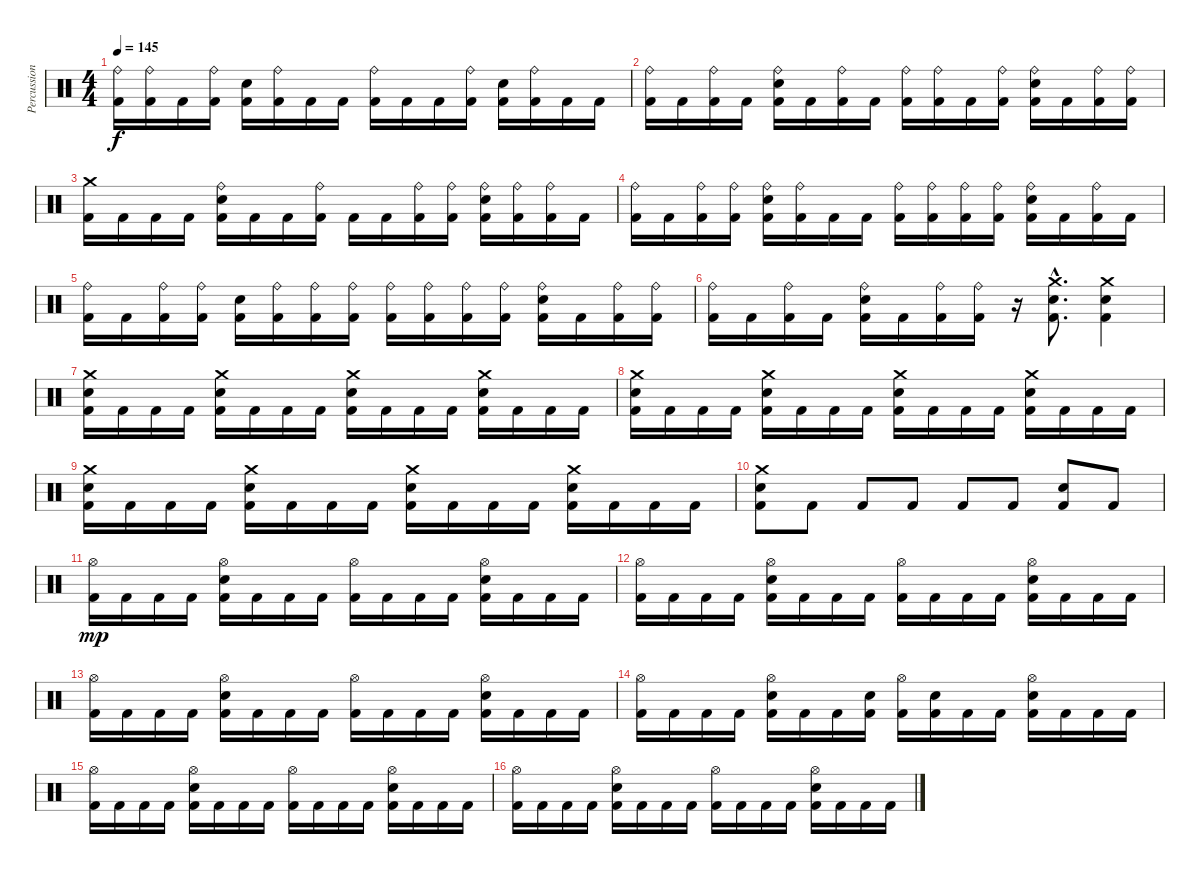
\track ("Percussion" "Percussion") {instrument percussion}
\staff {score}
\articulation defaults
\ts (4 4)
\tempo 145
\clef neutral
\ks c
("Ride (bell)" "Kick (hit) 2").16{dy f} ("Ride (bell)" "Kick (hit) 2").16 "Kick (hit) 2".16 ("Ride (bell)" "Kick (hit) 2").16 ("Electric Snare (hit)" "Kick (hit) 2").16 ("Ride (bell)" "Kick (hit) 2").16 "Kick (hit) 2".16 "Kick (hit) 2".16 ("Ride (bell)" "Kick (hit) 2").16 "Kick (hit) 2".16 "Kick (hit) 2".16 ("Ride (bell)" "Kick (hit) 2").16 ("Electric Snare (hit)" "Kick (hit) 2").16 ("Ride (bell)" "Kick (hit) 2").16 "Kick (hit) 2".16 "Kick (hit) 2".16 |
("Ride (bell)" "Kick (hit) 2").16 "Kick (hit) 2".16 ("Ride (bell)" "Kick (hit) 2").16 "Kick (hit) 2".16 ("Ride (bell)" "Electric Snare (hit)" "Kick (hit) 2").16 "Kick (hit) 2".16 ("Ride (bell)" "Kick (hit) 2").16 "Kick (hit) 2".16 ("Ride (bell)" "Kick (hit) 2").16 ("Ride (bell)" "Kick (hit) 2").16 "Kick (hit) 2".16 ("Ride (bell)" "Kick (hit) 2").16 ("Ride (bell)" "Electric Snare (hit)" "Kick (hit) 2").16 "Kick (hit) 2".16 ("Ride (bell)" "Kick (hit) 2").16 ("Ride (bell)" "Kick (hit) 2").16 |
("Crash medium (hit)" "Kick (hit) 2").16 "Kick (hit) 2".16 "Kick (hit) 2".16 "Kick (hit) 2".16 ("Ride (bell)" "Electric Snare (hit)" "Kick (hit) 2").16 "Kick (hit) 2".16 "Kick (hit) 2".16 ("Ride (bell)" "Kick (hit) 2").16 "Kick (hit) 2".16 "Kick (hit) 2".16 ("Ride (bell)" "Kick (hit) 2").16 ("Ride (bell)" "Kick (hit) 2").16 ("Ride (bell)" "Electric Snare (hit)" "Kick (hit) 2").16 ("Ride (bell)" "Kick (hit) 2").16 ("Ride (bell)" "Kick (hit) 2").16 "Kick (hit) 2".16 |
("Ride (bell)" "Kick (hit) 2").16 "Kick (hit) 2".16 ("Ride (bell)" "Kick (hit) 2").16 ("Ride (bell)" "Kick (hit) 2").16 ("Ride (bell)" "Electric Snare (hit)" "Kick (hit) 2").16 ("Ride (bell)" "Kick (hit) 2").16 "Kick (hit) 2".16 "Kick (hit) 2".16 ("Ride (bell)" "Kick (hit) 2").16 ("Ride (bell)" "Kick (hit) 2").16 ("Ride (bell)" "Kick (hit) 2").16 ("Ride (bell)" "Kick (hit) 2").16 ("Ride (bell)" "Electric Snare (hit)" "Kick (hit) 2").16 "Kick (hit) 2".16 ("Ride (bell)" "Kick (hit) 2").16 "Kick (hit) 2".16 |
("Ride (bell)" "Kick (hit) 2").16 "Kick (hit) 2".16 ("Ride (bell)" "Kick (hit) 2").16 ("Ride (bell)" "Kick (hit) 2").16 ("Electric Snare (hit)" "Kick (hit) 2").16 ("Ride (bell)" "Kick (hit) 2").16 ("Ride (bell)" "Kick (hit) 2").16 ("Ride (bell)" "Kick (hit) 2").16 ("Ride (bell)" "Kick (hit) 2").16 ("Ride (bell)" "Kick (hit) 2").16 ("Ride (bell)" "Kick (hit) 2").16 ("Ride (bell)" "Kick (hit) 2").16 ("Ride (bell)" "Electric Snare (hit)" "Kick (hit) 2").16 "Kick (hit) 2".16 ("Ride (bell)" "Kick (hit) 2").16 ("Ride (bell)" "Kick (hit) 2").16 |
("Ride (bell)" "Kick (hit) 2").16 "Kick (hit) 2".16 ("Ride (bell)" "Kick (hit) 2").16 "Kick (hit) 2".16 ("Ride (bell)" "Electric Snare (hit)" "Kick (hit) 2").16 "Kick (hit) 2".16 ("Ride (bell)" "Kick (hit) 2").16 ("Ride (bell)" "Kick (hit) 2").16 r.16 ("Crash medium (hit)"{hac} "Electric Snare (hit)"{hac} "Kick (hit) 2"{hac}).8{d} ("Crash medium (hit)" "Electric Snare (hit)" "Kick (hit) 2").4 |
("Crash medium (hit)" "Electric Snare (hit)" "Kick (hit) 2").16 "Kick (hit) 2".16 "Kick (hit) 2".16 "Kick (hit) 2".16 ("Crash medium (hit)" "Electric Snare (hit)" "Kick (hit) 2").16 "Kick (hit) 2".16 "Kick (hit) 2".16 "Kick (hit) 2".16 ("Crash medium (hit)" "Electric Snare (hit)" "Kick (hit) 2").16 "Kick (hit) 2".16 "Kick (hit) 2".16 "Kick (hit) 2".16 ("Crash medium (hit)" "Electric Snare (hit)" "Kick (hit) 2").16 "Kick (hit) 2".16 "Kick (hit) 2".16 "Kick (hit) 2".16 |
("Crash medium (hit)" "Electric Snare (hit)" "Kick (hit) 2").16 "Kick (hit) 2".16 "Kick (hit) 2".16 "Kick (hit) 2".16 ("Crash medium (hit)" "Electric Snare (hit)" "Kick (hit) 2").16 "Kick (hit) 2".16 "Kick (hit) 2".16 "Kick (hit) 2".16 ("Crash medium (hit)" "Electric Snare (hit)" "Kick (hit) 2").16 "Kick (hit) 2".16 "Kick (hit) 2".16 "Kick (hit) 2".16 ("Crash medium (hit)" "Electric Snare (hit)" "Kick (hit) 2").16 "Kick (hit) 2".16 "Kick (hit) 2".16 "Kick (hit) 2".16 |
("Crash medium (hit)" "Electric Snare (hit)" "Kick (hit) 2").16 "Kick (hit) 2".16 "Kick (hit) 2".16 "Kick (hit) 2".16 ("Crash medium (hit)" "Electric Snare (hit)" "Kick (hit) 2").16 "Kick (hit) 2".16 "Kick (hit) 2".16 "Kick (hit) 2".16 ("Crash medium (hit)" "Electric Snare (hit)" "Kick (hit) 2").16 "Kick (hit) 2".16 "Kick (hit) 2".16 "Kick (hit) 2".16 ("Crash medium (hit)" "Electric Snare (hit)" "Kick (hit) 2").16 "Kick (hit) 2".16 "Kick (hit) 2".16 "Kick (hit) 2".16 |
("Crash medium (hit)" "Electric Snare (hit)" "Kick (hit) 2").8 "Kick (hit) 2".8 "Kick (hit) 2".8 "Kick (hit) 2".8 "Kick (hit) 2".8 "Kick (hit) 2".8 ("Electric Snare (hit)" "Kick (hit) 2").8 "Kick (hit) 2".8 |
("Hi-Hat (open)" "Kick (hit) 2").16{dy mp} "Kick (hit) 2".16 "Kick (hit) 2".16 "Kick (hit) 2".16 ("Hi-Hat (open)" "Electric Snare (hit)" "Kick (hit) 2").16 "Kick (hit) 2".16 "Kick (hit) 2".16 "Kick (hit) 2".16 ("Hi-Hat (open)" "Kick (hit) 2").16 "Kick (hit) 2".16 "Kick (hit) 2".16 "Kick (hit) 2".16 ("Hi-Hat (open)" "Electric Snare (hit)" "Kick (hit) 2").16 "Kick (hit) 2".16 "Kick (hit) 2".16 "Kick (hit) 2".16 |
("Hi-Hat (open)" "Kick (hit) 2").16 "Kick (hit) 2".16 "Kick (hit) 2".16 "Kick (hit) 2".16 ("Hi-Hat (open)" "Electric Snare (hit)" "Kick (hit) 2").16 "Kick (hit) 2".16 "Kick (hit) 2".16 "Kick (hit) 2".16 ("Hi-Hat (open)" "Kick (hit) 2").16 "Kick (hit) 2".16 "Kick (hit) 2".16 "Kick (hit) 2".16 ("Hi-Hat (open)" "Electric Snare (hit)" "Kick (hit) 2").16 "Kick (hit) 2".16 "Kick (hit) 2".16 "Kick (hit) 2".16 |
("Hi-Hat (open)" "Kick (hit) 2").16 "Kick (hit) 2".16 "Kick (hit) 2".16 "Kick (hit) 2".16 ("Hi-Hat (open)" "Electric Snare (hit)" "Kick (hit) 2").16 "Kick (hit) 2".16 "Kick (hit) 2".16 "Kick (hit) 2".16 ("Hi-Hat (open)" "Kick (hit) 2").16 "Kick (hit) 2".16 "Kick (hit) 2".16 "Kick (hit) 2".16 ("Hi-Hat (open)" "Electric Snare (hit)" "Kick (hit) 2").16 "Kick (hit) 2".16 "Kick (hit) 2".16 "Kick (hit) 2".16 |
("Hi-Hat (open)" "Kick (hit) 2").16 "Kick (hit) 2".16 "Kick (hit) 2".16 "Kick (hit) 2".16 ("Hi-Hat (open)" "Electric Snare (hit)" "Kick (hit) 2").16 "Kick (hit) 2".16 "Kick (hit) 2".16 ("Electric Snare (hit)" "Kick (hit) 2").16 ("Hi-Hat (open)" "Kick (hit) 2").16 ("Electric Snare (hit)" "Kick (hit) 2").16 "Kick (hit) 2".16 "Kick (hit) 2".16 ("Hi-Hat (open)" "Electric Snare (hit)" "Kick (hit) 2").16 "Kick (hit) 2".16 "Kick (hit) 2".16 "Kick (hit) 2".16 |
("Hi-Hat (open)" "Kick (hit) 2").16 "Kick (hit) 2".16 "Kick (hit) 2".16 "Kick (hit) 2".16 ("Hi-Hat (open)" "Electric Snare (hit)" "Kick (hit) 2").16 "Kick (hit) 2".16 "Kick (hit) 2".16 "Kick (hit) 2".16 ("Hi-Hat (open)" "Kick (hit) 2").16 "Kick (hit) 2".16 "Kick (hit) 2".16 "Kick (hit) 2".16 ("Hi-Hat (open)" "Electric Snare (hit)" "Kick (hit) 2").16 "Kick (hit) 2".16 "Kick (hit) 2".16 "Kick (hit) 2".16 |
("Hi-Hat (open)" "Kick (hit) 2").16 "Kick (hit) 2".16 "Kick (hit) 2".16 "Kick (hit) 2".16 ("Hi-Hat (open)" "Electric Snare (hit)" "Kick (hit) 2").16 "Kick (hit) 2".16 "Kick (hit) 2".16 "Kick (hit) 2".16 ("Hi-Hat (open)" "Kick (hit) 2").16 "Kick (hit) 2".16 "Kick (hit) 2".16 "Kick (hit) 2".16 ("Hi-Hat (open)" "Electric Snare (hit)" "Kick (hit) 2").16 "Kick (hit) 2".16 "Kick (hit) 2".16 "Kick (hit) 2".16
